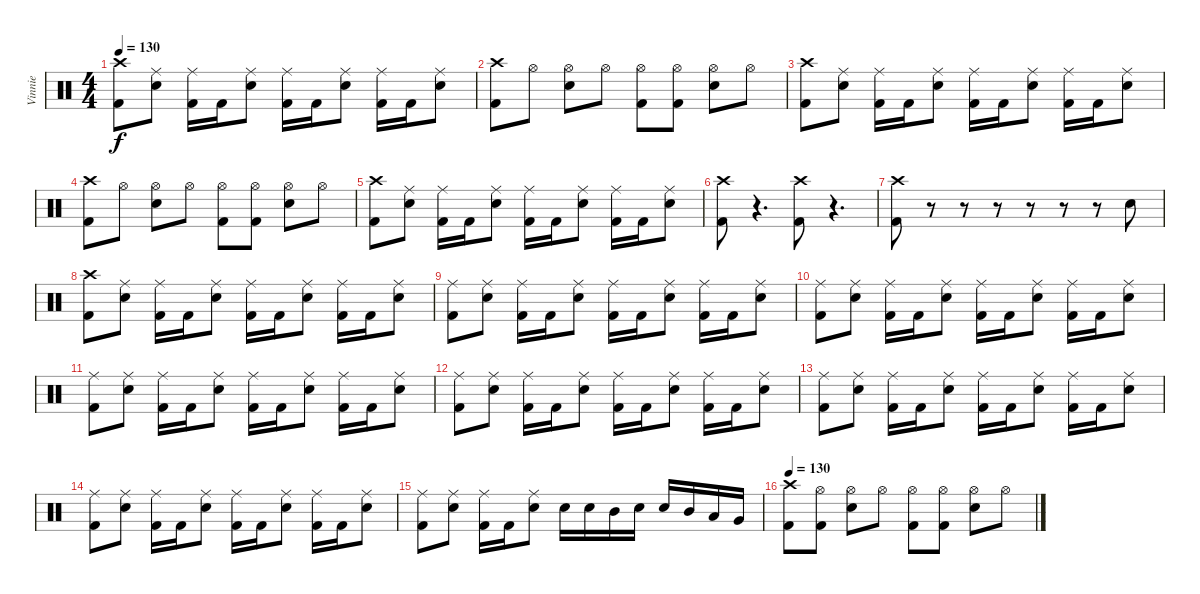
\track ("Vinnie" "Vinnie") {instrument percussion}
\staff {score}
\articulation defaults
\ts (4 4)
\tempo 130
\clef neutral
\ks c
("Crash high (hit)" "Kick (hit) 2").8{dy f} ("Ride (middle)" "Electric Snare (hit)").8 ("Ride (middle)" "Kick (hit) 2").16 "Kick (hit) 2".16 ("Ride (middle)" "Electric Snare (hit)").8 ("Ride (middle)" "Kick (hit) 2").16 "Kick (hit) 2".16 ("Ride (middle)" "Electric Snare (hit)").8 ("Ride (middle)" "Kick (hit) 2").16 "Kick (hit) 2".16 ("Ride (middle)" "Electric Snare (hit)").8 |
("Crash high (hit)" "Kick (hit) 2").8 "Hi-Hat (open)".8 ("Hi-Hat (open)" "Electric Snare (hit)").8 "Hi-Hat (open)".8 ("Hi-Hat (open)" "Kick (hit) 2").8 ("Hi-Hat (open)" "Kick (hit) 2").8 ("Hi-Hat (open)" "Electric Snare (hit)").8 "Hi-Hat (open)".8 |
("Crash high (hit)" "Kick (hit) 2").8 ("Ride (middle)" "Electric Snare (hit)").8 ("Ride (middle)" "Kick (hit) 2").16 "Kick (hit) 2".16 ("Ride (middle)" "Electric Snare (hit)").8 ("Ride (middle)" "Kick (hit) 2").16 "Kick (hit) 2".16 ("Ride (middle)" "Electric Snare (hit)").8 ("Ride (middle)" "Kick (hit) 2").16 "Kick (hit) 2".16 ("Ride (middle)" "Electric Snare (hit)").8 |
("Crash high (hit)" "Kick (hit) 2").8 "Hi-Hat (open)".8 ("Hi-Hat (open)" "Electric Snare (hit)").8 "Hi-Hat (open)".8 ("Hi-Hat (open)" "Kick (hit) 2").8 ("Hi-Hat (open)" "Kick (hit) 2").8 ("Hi-Hat (open)" "Electric Snare (hit)").8 "Hi-Hat (open)".8 |
("Crash high (hit)" "Kick (hit) 2").8 ("Ride (middle)" "Electric Snare (hit)").8 ("Ride (middle)" "Kick (hit) 2").16 "Kick (hit) 2".16 ("Ride (middle)" "Electric Snare (hit)").8 ("Ride (middle)" "Kick (hit) 2").16 "Kick (hit) 2".16 ("Ride (middle)" "Electric Snare (hit)").8 ("Ride (middle)" "Kick (hit) 2").16 "Kick (hit) 2".16 ("Ride (middle)" "Electric Snare (hit)").8 |
("Crash high (hit)" "Kick (hit) 2").8 r.4{d} ("Crash high (hit)" "Kick (hit) 2").8 r.4{d} |
("Crash high (hit)" "Kick (hit) 2").8 r.8 r.8 r.8 r.8 r.8 r.8 "Electric Snare (hit)".8 |
("Crash high (hit)" "Kick (hit) 2").8 ("Ride (middle)" "Electric Snare (hit)").8 ("Ride (middle)" "Kick (hit) 2").16 "Kick (hit) 2".16 ("Ride (middle)" "Electric Snare (hit)").8 ("Ride (middle)" "Kick (hit) 2").16 "Kick (hit) 2".16 ("Ride (middle)" "Electric Snare (hit)").8 ("Ride (middle)" "Kick (hit) 2").16 "Kick (hit) 2".16 ("Ride (middle)" "Electric Snare (hit)").8 |
("Ride (middle)" "Kick (hit) 2").8 ("Ride (middle)" "Electric Snare (hit)").8 ("Ride (middle)" "Kick (hit) 2").16 "Kick (hit) 2".16 ("Ride (middle)" "Electric Snare (hit)").8 ("Ride (middle)" "Kick (hit) 2").16 "Kick (hit) 2".16 ("Ride (middle)" "Electric Snare (hit)").8 ("Ride (middle)" "Kick (hit) 2").16 "Kick (hit) 2".16 ("Ride (middle)" "Electric Snare (hit)").8 |
("Ride (middle)" "Kick (hit) 2").8 ("Ride (middle)" "Electric Snare (hit)").8 ("Ride (middle)" "Kick (hit) 2").16 "Kick (hit) 2".16 ("Ride (middle)" "Electric Snare (hit)").8 ("Ride (middle)" "Kick (hit) 2").16 "Kick (hit) 2".16 ("Ride (middle)" "Electric Snare (hit)").8 ("Ride (middle)" "Kick (hit) 2").16 "Kick (hit) 2".16 ("Ride (middle)" "Electric Snare (hit)").8 |
("Ride (middle)" "Kick (hit) 2").8 ("Ride (middle)" "Electric Snare (hit)").8 ("Ride (middle)" "Kick (hit) 2").16 "Kick (hit) 2".16 ("Ride (middle)" "Electric Snare (hit)").8 ("Ride (middle)" "Kick (hit) 2").16 "Kick (hit) 2".16 ("Ride (middle)" "Electric Snare (hit)").8 ("Ride (middle)" "Kick (hit) 2").16 "Kick (hit) 2".16 ("Ride (middle)" "Electric Snare (hit)").8 |
("Ride (middle)" "Kick (hit) 2").8 ("Ride (middle)" "Electric Snare (hit)").8 ("Ride (middle)" "Kick (hit) 2").16 "Kick (hit) 2".16 ("Ride (middle)" "Electric Snare (hit)").8 ("Ride (middle)" "Kick (hit) 2").16 "Kick (hit) 2".16 ("Ride (middle)" "Electric Snare (hit)").8 ("Ride (middle)" "Kick (hit) 2").16 "Kick (hit) 2".16 ("Ride (middle)" "Electric Snare (hit)").8 |
("Ride (middle)" "Kick (hit) 2").8 ("Ride (middle)" "Electric Snare (hit)").8 ("Ride (middle)" "Kick (hit) 2").16 "Kick (hit) 2".16 ("Ride (middle)" "Electric Snare (hit)").8 ("Ride (middle)" "Kick (hit) 2").16 "Kick (hit) 2".16 ("Ride (middle)" "Electric Snare (hit)").8 ("Ride (middle)" "Kick (hit) 2").16 "Kick (hit) 2".16 ("Ride (middle)" "Electric Snare (hit)").8 |
("Ride (middle)" "Kick (hit) 2").8 ("Ride (middle)" "Electric Snare (hit)").8 ("Ride (middle)" "Kick (hit) 2").16 "Kick (hit) 2".16 ("Ride (middle)" "Electric Snare (hit)").8 ("Ride (middle)" "Kick (hit) 2").16 "Kick (hit) 2".16 ("Ride (middle)" "Electric Snare (hit)").8 ("Ride (middle)" "Kick (hit) 2").16 "Kick (hit) 2".16 ("Ride (middle)" "Electric Snare (hit)").8 |
("Ride (middle)" "Kick (hit) 2").8 ("Ride (middle)" "Electric Snare (hit)").8 ("Ride (middle)" "Kick (hit) 2").16 "Kick (hit) 2".16 ("Ride (middle)" "Electric Snare (hit)").8 "Electric Snare (hit)".16 "Electric Snare (hit)".16 "Mid Tom (hit)".16 "Electric Snare (hit)".16 "Electric Snare (hit)".16 "Mid Tom (hit)".16 "Low Tom (hit)".16 "Very Low Tom (hit)".16 |
\tempo 130
("Crash high (hit)" "Kick (hit) 2").8 ("Hi-Hat (open)" "Kick (hit) 2").8 ("Hi-Hat (open)" "Electric Snare (hit)").8 "Hi-Hat (open)".8 ("Hi-Hat (open)" "Kick (hit) 2").8 ("Hi-Hat (open)" "Kick (hit) 2").8 ("Hi-Hat (open)" "Electric Snare (hit)").8 "Hi-Hat (open)".8
